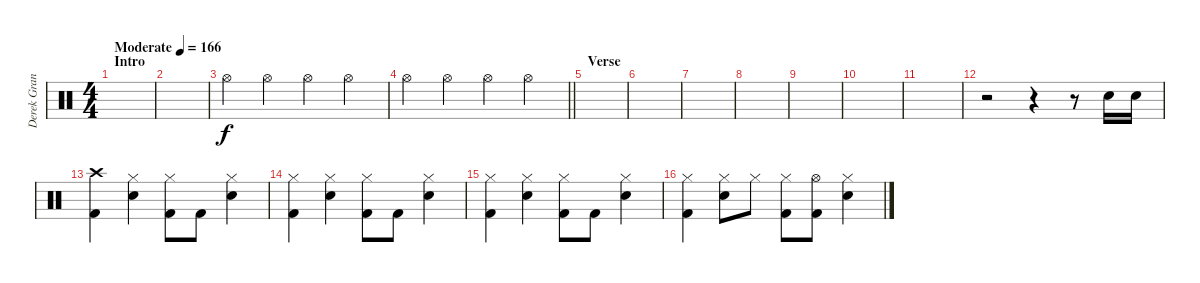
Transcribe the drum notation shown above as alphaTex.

\track ("Derek Grant - Drums" "Derek Gran") {instrument percussion}
\staff {score}
\articulation defaults
\ts (4 4)
\section ("" "Intro")
\tempo (166 "Moderate")
\clef neutral
\ks c
|
|
"Hi-Hat (open)".4{volume 9} "Hi-Hat (open)".4 "Hi-Hat (open)".4 "Hi-Hat (open)".4 |
\barLineRight lightlight "Hi-Hat (open)".4 "Hi-Hat (open)".4 "Hi-Hat (open)".4 "Hi-Hat (open)".4
|
\section ("" "Verse")
|
|
|
|
|
|
|
r.2 r.4 r.8 "Snare (hit) 2".16 "Snare (hit) 2".16 |
("Kick (hit) 2" "Crash high (hit)").4 ("Snare (hit) 2" "Hi-Hat (closed)").4 ("Kick (hit) 2" "Hi-Hat (closed)").8 "Kick (hit) 2".8 ("Snare (hit) 2" "Hi-Hat (closed)").4 |
("Hi-Hat (closed)" "Kick (hit) 2").4 ("Snare (hit) 2" "Hi-Hat (closed)").4 ("Kick (hit) 2" "Hi-Hat (closed)").8 "Kick (hit) 2".8 ("Snare (hit) 2" "Hi-Hat (closed)").4 |
("Hi-Hat (closed)" "Kick (hit) 2").4 ("Snare (hit) 2" "Hi-Hat (closed)").4 ("Kick (hit) 2" "Hi-Hat (closed)").8 "Kick (hit) 2".8 ("Snare (hit) 2" "Hi-Hat (closed)").4 |
("Hi-Hat (closed)" "Kick (hit) 2").4 ("Snare (hit) 2" "Hi-Hat (closed)").8 "Hi-Hat (closed)".8 ("Kick (hit) 2" "Hi-Hat (closed)").8 ("Kick (hit) 2" "Hi-Hat (open)").8 ("Snare (hit) 2" "Hi-Hat (closed)").4
